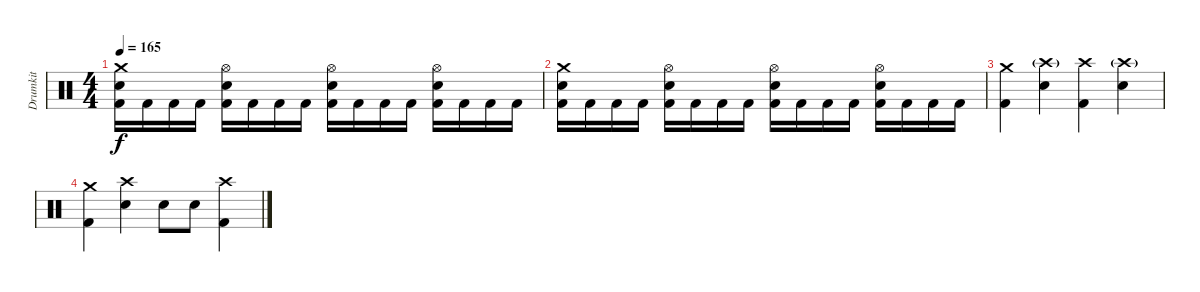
\track ("Drumkit" "Drumkit") {instrument percussion}
\staff {score}
\articulation defaults
\ts (4 4)
\tempo 165
\clef neutral
\ks c
("Crash medium (hit)" "Snare (hit) 2" "Kick (hit) 2").16{dy f} "Kick (hit) 2".16 "Kick (hit) 2".16 "Kick (hit) 2".16 ("Hi-Hat (open)" "Snare (hit) 2" "Kick (hit) 2").16 "Kick (hit) 2".16 "Kick (hit) 2".16 "Kick (hit) 2".16 ("Hi-Hat (open)" "Snare (hit) 2" "Kick (hit) 2").16 "Kick (hit) 2".16 "Kick (hit) 2".16 "Kick (hit) 2".16 ("Hi-Hat (open)" "Snare (hit) 2" "Kick (hit) 2").16 "Kick (hit) 2".16 "Kick (hit) 2".16 "Kick (hit) 2".16 |
("Crash medium (hit)" "Snare (hit) 2" "Kick (hit) 2").16 "Kick (hit) 2".16 "Kick (hit) 2".16 "Kick (hit) 2".16 ("Hi-Hat (open)" "Snare (hit) 2" "Kick (hit) 2").16 "Kick (hit) 2".16 "Kick (hit) 2".16 "Kick (hit) 2".16 ("Hi-Hat (open)" "Snare (hit) 2" "Kick (hit) 2").16 "Kick (hit) 2".16 "Kick (hit) 2".16 "Kick (hit) 2".16 ("Hi-Hat (open)" "Snare (hit) 2" "Kick (hit) 2").16 "Kick (hit) 2".16 "Kick (hit) 2".16 "Kick (hit) 2".16 |
("Crash medium (hit)" "Kick (hit) 2").4 ("Crash high (hit)"{g} "Snare (hit) 2").4 ("Crash high (hit)" "Kick (hit) 2").4 ("Crash high (hit)"{g} "Snare (hit) 2").4 |
("Crash medium (hit)" "Kick (hit) 2").4 ("Crash high (hit)" "Snare (hit) 2").4 "Snare (hit) 2".8 "Snare (hit) 2".8 ("Crash high (hit)" "Kick (hit) 2").4
